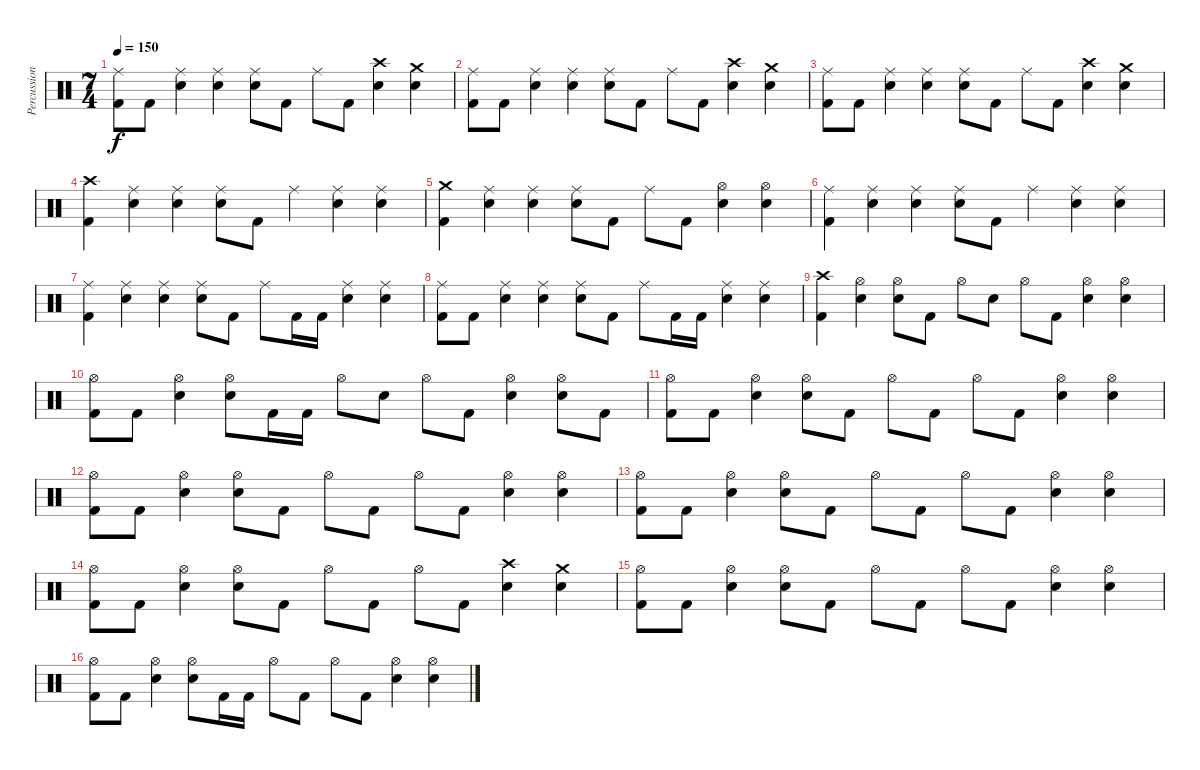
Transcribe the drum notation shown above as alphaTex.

\track ("Percussion" "Percussion") {instrument percussion}
\staff {score}
\articulation defaults
\ts (7 4)
\tempo 150
\clef neutral
\ks c
("Kick (hit) 2" "Ride (middle)").8{dy f} "Kick (hit) 2".8 ("Snare (hit) 2" "Ride (middle)").4 ("Snare (hit) 2" "Ride (middle)").4 ("Snare (hit) 2" "Ride (middle)").8 "Kick (hit) 2".8 "Ride (middle)".8 "Kick (hit) 2".8 ("Snare (hit) 2" "Crash high (hit)").4 ("Snare (hit) 2" "Crash medium (hit)").4 |
("Kick (hit) 2" "Ride (middle)").8 "Kick (hit) 2".8 ("Snare (hit) 2" "Ride (middle)").4 ("Snare (hit) 2" "Ride (middle)").4 ("Snare (hit) 2" "Ride (middle)").8 "Kick (hit) 2".8 "Ride (middle)".8 "Kick (hit) 2".8 ("Snare (hit) 2" "Crash high (hit)").4 ("Snare (hit) 2" "Crash medium (hit)").4 |
("Kick (hit) 2" "Ride (middle)").8 "Kick (hit) 2".8 ("Snare (hit) 2" "Ride (middle)").4 ("Snare (hit) 2" "Ride (middle)").4 ("Snare (hit) 2" "Ride (middle)").8 "Kick (hit) 2".8 "Ride (middle)".8 "Kick (hit) 2".8 ("Snare (hit) 2" "Crash high (hit)").4 ("Snare (hit) 2" "Crash medium (hit)").4 |
("Kick (hit) 2" "Crash high (hit)").4 ("Snare (hit) 2" "Ride (middle)").4 ("Snare (hit) 2" "Ride (middle)").4 ("Snare (hit) 2" "Ride (middle)").8 "Kick (hit) 2".8 "Ride (middle)".4 ("Snare (hit) 2" "Ride (middle)").4 ("Snare (hit) 2" "Ride (middle)").4 |
("Kick (hit) 2" "Crash medium (hit)").4 ("Snare (hit) 2" "Ride (middle)").4 ("Snare (hit) 2" "Ride (middle)").4 ("Snare (hit) 2" "Ride (middle)").8 "Kick (hit) 2".8 "Ride (middle)".8 "Kick (hit) 2".8 ("Snare (hit) 2" "Hi-Hat (open)").4 ("Snare (hit) 2" "Hi-Hat (open)").4 |
("Kick (hit) 2" "Ride (middle)").4 ("Snare (hit) 2" "Ride (middle)").4 ("Snare (hit) 2" "Ride (middle)").4 ("Snare (hit) 2" "Ride (middle)").8 "Kick (hit) 2".8 "Ride (middle)".4 ("Snare (hit) 2" "Ride (middle)").4 ("Snare (hit) 2" "Ride (middle)").4 |
("Kick (hit) 2" "Ride (middle)").4 ("Snare (hit) 2" "Ride (middle)").4 ("Snare (hit) 2" "Ride (middle)").4 ("Snare (hit) 2" "Ride (middle)").8 "Kick (hit) 2".8 "Ride (middle)".8 "Kick (hit) 2".16 "Kick (hit) 2".16 ("Snare (hit) 2" "Ride (middle)").4 ("Snare (hit) 2" "Ride (middle)").4 |
("Kick (hit) 2" "Ride (middle)").8 "Kick (hit) 2".8 ("Snare (hit) 2" "Ride (middle)").4 ("Snare (hit) 2" "Ride (middle)").4 ("Snare (hit) 2" "Ride (middle)").8 "Kick (hit) 2".8 "Ride (middle)".8 "Kick (hit) 2".16 "Kick (hit) 2".16 ("Snare (hit) 2" "Ride (middle)").4 ("Snare (hit) 2" "Ride (middle)").4 |
("Kick (hit) 2" "Crash high (hit)").4 ("Snare (hit) 2" "Hi-Hat (open)").4 ("Snare (hit) 2" "Hi-Hat (open)").8 "Kick (hit) 2".8 "Hi-Hat (open)".8 "Snare (hit) 2".8 "Hi-Hat (open)".8 "Kick (hit) 2".8 ("Snare (hit) 2" "Hi-Hat (open)").4 ("Snare (hit) 2" "Hi-Hat (open)").4 |
("Kick (hit) 2" "Hi-Hat (open)").8 "Kick (hit) 2".8 ("Snare (hit) 2" "Hi-Hat (open)").4 ("Snare (hit) 2" "Hi-Hat (open)").8 "Kick (hit) 2".16 "Kick (hit) 2".16 "Hi-Hat (open)".8 "Snare (hit) 2".8 "Hi-Hat (open)".8 "Kick (hit) 2".8 ("Snare (hit) 2" "Hi-Hat (open)").4 ("Snare (hit) 2" "Hi-Hat (open)").8 "Kick (hit) 2".8 |
("Kick (hit) 2" "Hi-Hat (open)").8 "Kick (hit) 2".8 ("Snare (hit) 2" "Hi-Hat (open)").4 ("Snare (hit) 2" "Hi-Hat (open)").8 "Kick (hit) 2".8 "Hi-Hat (open)".8 "Kick (hit) 2".8 "Hi-Hat (open)".8 "Kick (hit) 2".8 ("Snare (hit) 2" "Hi-Hat (open)").4 ("Snare (hit) 2" "Hi-Hat (open)").4 |
("Kick (hit) 2" "Hi-Hat (open)").8 "Kick (hit) 2".8 ("Snare (hit) 2" "Hi-Hat (open)").4 ("Snare (hit) 2" "Hi-Hat (open)").8 "Kick (hit) 2".8 "Hi-Hat (open)".8 "Kick (hit) 2".8 "Hi-Hat (open)".8 "Kick (hit) 2".8 ("Snare (hit) 2" "Hi-Hat (open)").4 ("Snare (hit) 2" "Hi-Hat (open)").4 |
("Kick (hit) 2" "Hi-Hat (open)").8 "Kick (hit) 2".8 ("Snare (hit) 2" "Hi-Hat (open)").4 ("Snare (hit) 2" "Hi-Hat (open)").8 "Kick (hit) 2".8 "Hi-Hat (open)".8 "Kick (hit) 2".8 "Hi-Hat (open)".8 "Kick (hit) 2".8 ("Snare (hit) 2" "Hi-Hat (open)").4 ("Snare (hit) 2" "Hi-Hat (open)").4 |
("Kick (hit) 2" "Hi-Hat (open)").8 "Kick (hit) 2".8 ("Snare (hit) 2" "Hi-Hat (open)").4 ("Snare (hit) 2" "Hi-Hat (open)").8 "Kick (hit) 2".8 "Hi-Hat (open)".8 "Kick (hit) 2".8 "Hi-Hat (open)".8 "Kick (hit) 2".8 ("Snare (hit) 2" "Crash high (hit)").4 ("Snare (hit) 2" "Crash medium (hit)").4 |
("Kick (hit) 2" "Hi-Hat (open)").8 "Kick (hit) 2".8 ("Snare (hit) 2" "Hi-Hat (open)").4 ("Snare (hit) 2" "Hi-Hat (open)").8 "Kick (hit) 2".8 "Hi-Hat (open)".8 "Kick (hit) 2".8 "Hi-Hat (open)".8 "Kick (hit) 2".8 ("Snare (hit) 2" "Hi-Hat (open)").4 ("Snare (hit) 2" "Hi-Hat (open)").4 |
("Kick (hit) 2" "Hi-Hat (open)").8 "Kick (hit) 2".8 ("Snare (hit) 2" "Hi-Hat (open)").4 ("Snare (hit) 2" "Hi-Hat (open)").8 "Kick (hit) 2".16 "Kick (hit) 2".16 "Hi-Hat (open)".8 "Kick (hit) 2".8 "Hi-Hat (open)".8 "Kick (hit) 2".8 ("Snare (hit) 2" "Hi-Hat (open)").4 ("Snare (hit) 2" "Hi-Hat (open)").4
